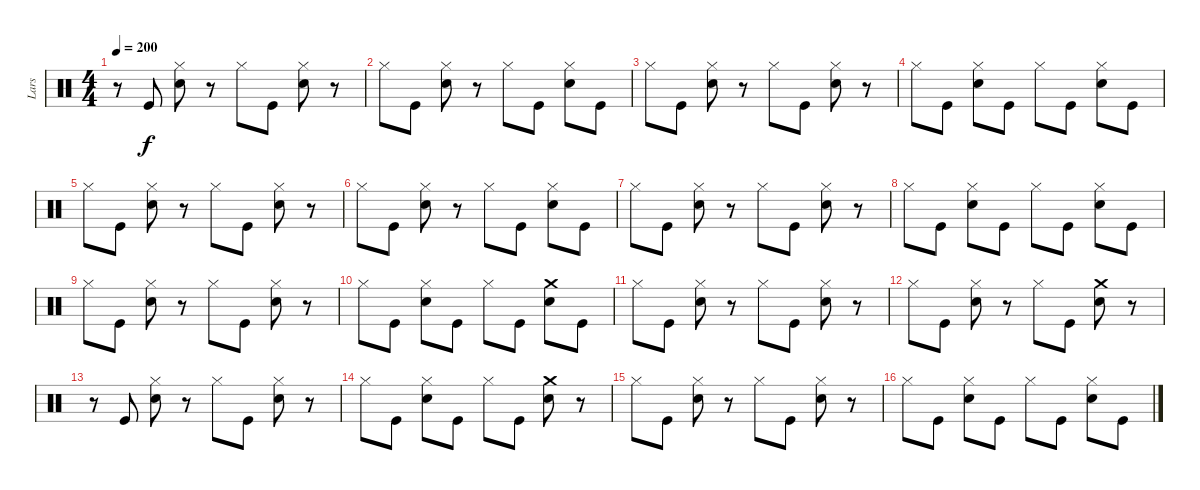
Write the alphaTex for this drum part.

\track ("Lars" "Lars") {instrument percussion}
\staff {score}
\articulation defaults
\ts (4 4)
\tempo 200
\clef neutral
\ks c
r.8{dy f} "Kick (hit)".8 ("Hi-Hat (closed)" "Snare (hit) 2").8 r.8 "Hi-Hat (closed)".8 "Kick (hit)".8 ("Hi-Hat (closed)" "Snare (hit) 2").8 r.8 |
"Hi-Hat (closed)".8 "Kick (hit)".8 ("Hi-Hat (closed)" "Snare (hit) 2").8 r.8 "Hi-Hat (closed)".8 "Kick (hit)".8 ("Hi-Hat (closed)" "Snare (hit) 2").8 "Kick (hit)".8 |
"Hi-Hat (closed)".8 "Kick (hit)".8 ("Hi-Hat (closed)" "Snare (hit) 2").8 r.8 "Hi-Hat (closed)".8 "Kick (hit)".8 ("Hi-Hat (closed)" "Snare (hit) 2").8 r.8 |
"Hi-Hat (closed)".8 "Kick (hit)".8 ("Hi-Hat (closed)" "Snare (hit) 2").8 "Kick (hit)".8 "Hi-Hat (closed)".8 "Kick (hit)".8 ("Hi-Hat (closed)" "Snare (hit) 2").8 "Kick (hit)".8 |
"Hi-Hat (closed)".8 "Kick (hit)".8 ("Hi-Hat (closed)" "Snare (hit) 2").8 r.8 "Hi-Hat (closed)".8 "Kick (hit)".8 ("Hi-Hat (closed)" "Snare (hit) 2").8 r.8 |
"Hi-Hat (closed)".8 "Kick (hit)".8 ("Hi-Hat (closed)" "Snare (hit) 2").8 r.8 "Hi-Hat (closed)".8 "Kick (hit)".8 ("Hi-Hat (closed)" "Snare (hit) 2").8 "Kick (hit)".8 |
"Hi-Hat (closed)".8 "Kick (hit)".8 ("Hi-Hat (closed)" "Snare (hit) 2").8 r.8 "Hi-Hat (closed)".8 "Kick (hit)".8 ("Hi-Hat (closed)" "Snare (hit) 2").8 r.8 |
"Hi-Hat (closed)".8 "Kick (hit)".8 ("Hi-Hat (closed)" "Snare (hit) 2").8 "Kick (hit)".8 "Hi-Hat (closed)".8 "Kick (hit)".8 ("Hi-Hat (closed)" "Snare (hit) 2").8 "Kick (hit)".8 |
"Hi-Hat (closed)".8 "Kick (hit)".8 ("Hi-Hat (closed)" "Snare (hit) 2").8 r.8 "Hi-Hat (closed)".8 "Kick (hit)".8 ("Hi-Hat (closed)" "Snare (hit) 2").8 r.8 |
"Hi-Hat (closed)".8 "Kick (hit)".8 ("Hi-Hat (closed)" "Snare (hit) 2").8 "Kick (hit)".8 "Hi-Hat (closed)".8 "Kick (hit)".8 ("Crash medium (hit)" "Snare (hit) 2").8 "Kick (hit)".8 |
"Hi-Hat (closed)".8 "Kick (hit)".8 ("Hi-Hat (closed)" "Snare (hit) 2").8 r.8 "Hi-Hat (closed)".8 "Kick (hit)".8 ("Hi-Hat (closed)" "Snare (hit) 2").8 r.8 |
"Hi-Hat (closed)".8 "Kick (hit)".8 ("Hi-Hat (closed)" "Snare (hit) 2").8 r.8 "Hi-Hat (closed)".8 "Kick (hit)".8 ("Crash medium (hit)" "Snare (hit) 2").8 r.8 |
r.8 "Kick (hit)".8 ("Hi-Hat (closed)" "Snare (hit) 2").8 r.8 "Hi-Hat (closed)".8 "Kick (hit)".8 ("Hi-Hat (closed)" "Snare (hit) 2").8 r.8 |
"Hi-Hat (closed)".8 "Kick (hit)".8 ("Hi-Hat (closed)" "Snare (hit) 2").8 "Kick (hit)".8 "Hi-Hat (closed)".8 "Kick (hit)".8 ("Crash medium (hit)" "Snare (hit) 2").8 r.8 |
"Hi-Hat (closed)".8 "Kick (hit)".8 ("Hi-Hat (closed)" "Snare (hit) 2").8 r.8 "Hi-Hat (closed)".8 "Kick (hit)".8 ("Hi-Hat (closed)" "Snare (hit) 2").8 r.8 |
"Hi-Hat (closed)".8 "Kick (hit)".8 ("Hi-Hat (closed)" "Snare (hit) 2").8 "Kick (hit)".8 "Hi-Hat (closed)".8 "Kick (hit)".8 ("Hi-Hat (closed)" "Snare (hit) 2").8 "Kick (hit)".8
